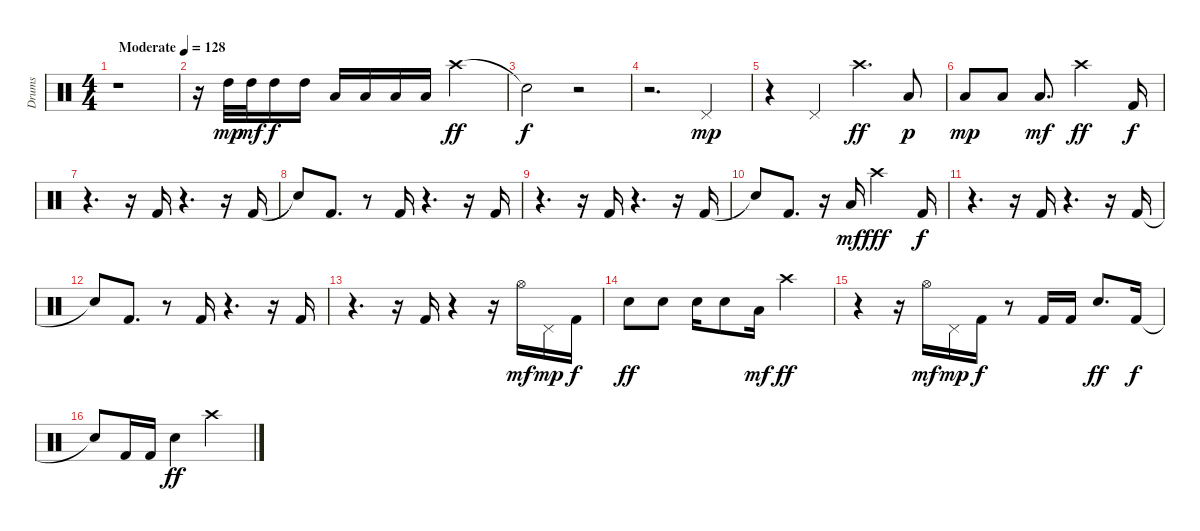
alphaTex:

\track ("Drums                               " "Drums     ") {instrument percussion}
\staff {score}
\articulation defaults
\ts (4 4)
\tempo (128 "Moderate")
\clef neutral
\ks c
r.1{dy mp} |
r.16 "High Tom (hit)".32 "High Tom (hit)".32{dy mf} "High Tom (hit)".16{dy f} "High Tom (hit)".16 "Low Tom (hit)".16 "Low Tom (hit)".16 "Low Floor Tom (hit)".16 "Low Floor Tom (hit)".16 "Crash high (hit)".2{dy ff} |
"Snare (hit)"{t}.2{dy f} r.2 |
r.2{d} "Pedal Hi-Hat (hit)".4{dy mp} |
r.4 "Pedal Hi-Hat (hit)".4 "Crash high (hit)".4{d dy ff} "Low Tom (hit)".8{dy p} |
"Low Tom (hit)".8{dy mp} "Low Tom (hit)".8 "Low Tom (hit)".8{d dy mf} "Crash high (hit)".2{dy ff} "Kick (hit) 2".16{dy f} |
r.4{d} r.16 "Kick (hit) 2".16 r.4{d} r.16 "Kick (hit) 2".16 |
"Snare (hit)"{t}.8 "Kick (hit) 2".8{d} r.8 "Kick (hit) 2".16 r.4{d} r.16 "Kick (hit) 2".16 |
r.4{d} r.16 "Kick (hit) 2".16 r.4{d} r.16 "Kick (hit) 2".16 |
"Snare (hit)"{t}.8 "Kick (hit) 2".8{d} r.16 "Low Tom (hit)".16{dy mf} "Crash high (hit)".2{dy fff} "Kick (hit) 2".16{dy f} |
r.4{d} r.16 "Kick (hit) 2".16 r.4{d} r.16 "Kick (hit) 2".16 |
"Snare (hit)"{t}.8 "Kick (hit) 2".8{d} r.8 "Kick (hit) 2".16 r.4{d} r.16 "Kick (hit) 2".16 |
r.4{d} r.16 "Kick (hit) 2".16 r.4 r.16 "Hi-Hat (open)".16{dy mf} "Pedal Hi-Hat (hit)".16{dy mp} "Kick (hit) 2".16{dy f} |
"Snare (hit) 2".8{dy ff} "Snare (hit) 2".8 "Snare (hit) 2".16 "Snare (hit) 2".8 "Low Floor Tom (hit)".16{dy mf} "Crash high (hit)".2{dy ff} |
r.4 r.16 "Hi-Hat (open)".16{dy mf} "Pedal Hi-Hat (hit)".16{dy mp} "Kick (hit) 2".16{dy f} r.8 "Kick (hit) 2".16 "Kick (hit) 2".16 "Snare (hit) 2".8{d dy ff} "Kick (hit) 2".16{dy f} |
"Snare (hit)"{t}.8 "Kick (hit) 2".16 "Kick (hit) 2".16 "Snare (hit) 2".4{dy ff} "Crash high (hit)".2
